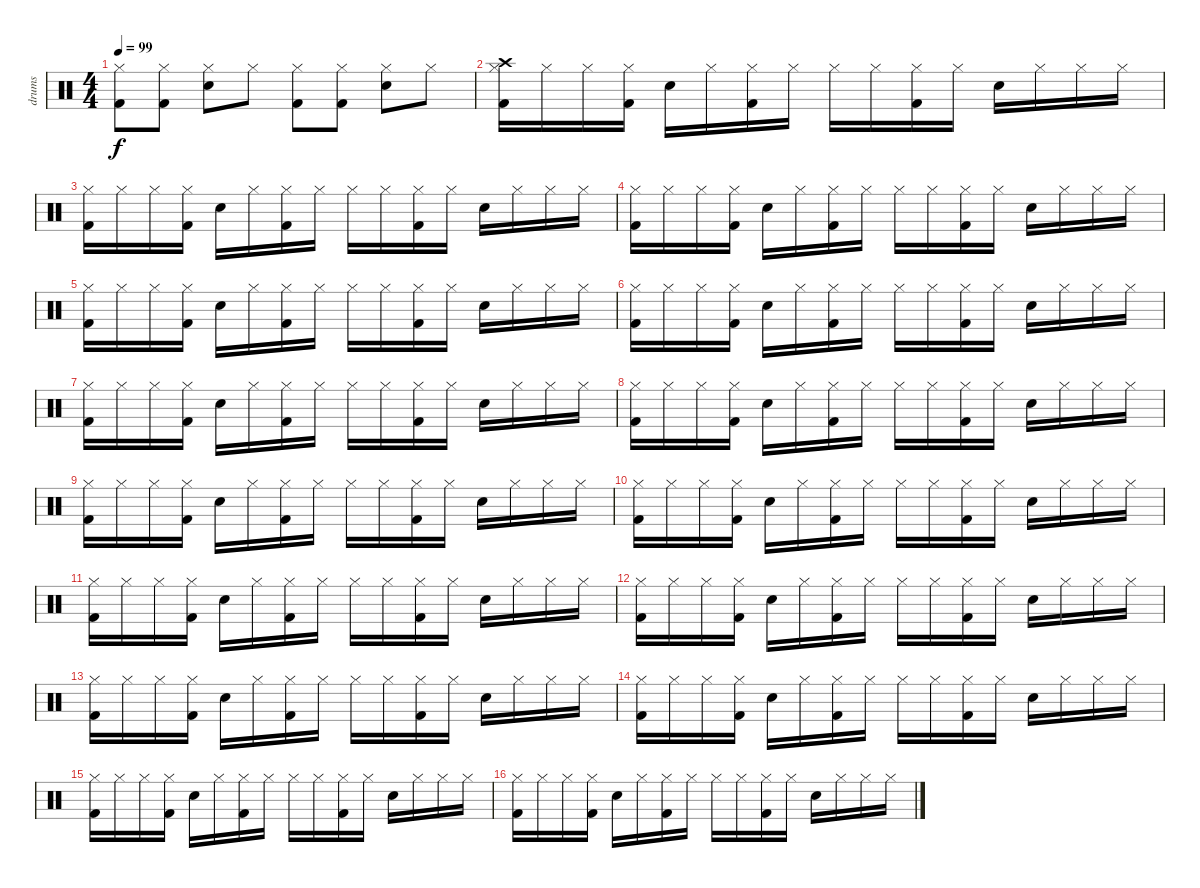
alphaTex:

\track ("drums" "drums") {instrument percussion}
\staff {score}
\articulation defaults
\ts (4 4)
\tempo 99
\clef neutral
\ks c
("Hi-Hat (closed)" "Kick (hit) 2").8{dy f} ("Hi-Hat (closed)" "Kick (hit) 2").8 ("Hi-Hat (closed)" "Snare (hit) 2").8 "Hi-Hat (closed)".8 ("Hi-Hat (closed)" "Kick (hit) 2").8 ("Hi-Hat (closed)" "Kick (hit) 2").8 ("Hi-Hat (closed)" "Snare (hit) 2").8 "Hi-Hat (closed)".8 |
("Crash high (hit)" "Hi-Hat (closed)" "Kick (hit) 2").16 "Hi-Hat (closed)".16 "Hi-Hat (closed)".16 ("Hi-Hat (closed)" "Kick (hit) 2").16 "Snare (hit) 2".16 "Hi-Hat (closed)".16 ("Hi-Hat (closed)" "Kick (hit) 2").16 "Hi-Hat (closed)".16 "Hi-Hat (closed)"{nh}.16 "Hi-Hat (closed)".16 ("Hi-Hat (closed)" "Kick (hit) 2").16 "Hi-Hat (closed)".16 "Snare (hit) 2".16 "Hi-Hat (closed)".16 "Hi-Hat (closed)".16 "Hi-Hat (closed)".16 |
("Hi-Hat (closed)" "Kick (hit) 2").16 "Hi-Hat (closed)".16 "Hi-Hat (closed)".16 ("Hi-Hat (closed)" "Kick (hit) 2").16 "Snare (hit) 2".16 "Hi-Hat (closed)".16 ("Hi-Hat (closed)" "Kick (hit) 2").16 "Hi-Hat (closed)".16 "Hi-Hat (closed)"{nh}.16 "Hi-Hat (closed)".16 ("Hi-Hat (closed)" "Kick (hit) 2").16 "Hi-Hat (closed)".16 "Snare (hit) 2".16 "Hi-Hat (closed)".16 "Hi-Hat (closed)".16 "Hi-Hat (closed)".16 |
("Hi-Hat (closed)" "Kick (hit) 2").16 "Hi-Hat (closed)".16 "Hi-Hat (closed)".16 ("Hi-Hat (closed)" "Kick (hit) 2").16 "Snare (hit) 2".16 "Hi-Hat (closed)".16 ("Hi-Hat (closed)" "Kick (hit) 2").16 "Hi-Hat (closed)".16 "Hi-Hat (closed)"{nh}.16 "Hi-Hat (closed)".16 ("Hi-Hat (closed)" "Kick (hit) 2").16 "Hi-Hat (closed)".16 "Snare (hit) 2".16 "Hi-Hat (closed)".16 "Hi-Hat (closed)".16 "Hi-Hat (closed)".16 |
("Hi-Hat (closed)" "Kick (hit) 2").16 "Hi-Hat (closed)".16 "Hi-Hat (closed)".16 ("Hi-Hat (closed)" "Kick (hit) 2").16 "Snare (hit) 2".16 "Hi-Hat (closed)".16 ("Hi-Hat (closed)" "Kick (hit) 2").16 "Hi-Hat (closed)".16 "Hi-Hat (closed)"{nh}.16 "Hi-Hat (closed)".16 ("Hi-Hat (closed)" "Kick (hit) 2").16 "Hi-Hat (closed)".16 "Snare (hit) 2".16 "Hi-Hat (closed)".16 "Hi-Hat (closed)".16 "Hi-Hat (closed)".16 |
("Hi-Hat (closed)" "Kick (hit) 2").16 "Hi-Hat (closed)".16 "Hi-Hat (closed)".16 ("Hi-Hat (closed)" "Kick (hit) 2").16 "Snare (hit) 2".16 "Hi-Hat (closed)".16 ("Hi-Hat (closed)" "Kick (hit) 2").16 "Hi-Hat (closed)".16 "Hi-Hat (closed)"{nh}.16 "Hi-Hat (closed)".16 ("Hi-Hat (closed)" "Kick (hit) 2").16 "Hi-Hat (closed)".16 "Snare (hit) 2".16 "Hi-Hat (closed)".16 "Hi-Hat (closed)".16 "Hi-Hat (closed)".16 |
("Hi-Hat (closed)" "Kick (hit) 2").16 "Hi-Hat (closed)".16 "Hi-Hat (closed)".16 ("Hi-Hat (closed)" "Kick (hit) 2").16 "Snare (hit) 2".16 "Hi-Hat (closed)".16 ("Hi-Hat (closed)" "Kick (hit) 2").16 "Hi-Hat (closed)".16 "Hi-Hat (closed)"{nh}.16 "Hi-Hat (closed)".16 ("Hi-Hat (closed)" "Kick (hit) 2").16 "Hi-Hat (closed)".16 "Snare (hit) 2".16 "Hi-Hat (closed)".16 "Hi-Hat (closed)".16 "Hi-Hat (closed)".16 |
("Hi-Hat (closed)" "Kick (hit) 2").16 "Hi-Hat (closed)".16 "Hi-Hat (closed)".16 ("Hi-Hat (closed)" "Kick (hit) 2").16 "Snare (hit) 2".16 "Hi-Hat (closed)".16 ("Hi-Hat (closed)" "Kick (hit) 2").16 "Hi-Hat (closed)".16 "Hi-Hat (closed)"{nh}.16 "Hi-Hat (closed)".16 ("Hi-Hat (closed)" "Kick (hit) 2").16 "Hi-Hat (closed)".16 "Snare (hit) 2".16 "Hi-Hat (closed)".16 "Hi-Hat (closed)".16 "Hi-Hat (closed)".16 |
("Hi-Hat (closed)" "Kick (hit) 2").16 "Hi-Hat (closed)".16 "Hi-Hat (closed)".16 ("Hi-Hat (closed)" "Kick (hit) 2").16 "Snare (hit) 2".16 "Hi-Hat (closed)".16 ("Hi-Hat (closed)" "Kick (hit) 2").16 "Hi-Hat (closed)".16 "Hi-Hat (closed)"{nh}.16 "Hi-Hat (closed)".16 ("Hi-Hat (closed)" "Kick (hit) 2").16 "Hi-Hat (closed)".16 "Snare (hit) 2".16 "Hi-Hat (closed)".16 "Hi-Hat (closed)".16 "Hi-Hat (closed)".16 |
("Hi-Hat (closed)" "Kick (hit) 2").16 "Hi-Hat (closed)".16 "Hi-Hat (closed)".16 ("Hi-Hat (closed)" "Kick (hit) 2").16 "Snare (hit) 2".16 "Hi-Hat (closed)".16 ("Hi-Hat (closed)" "Kick (hit) 2").16 "Hi-Hat (closed)".16 "Hi-Hat (closed)"{nh}.16 "Hi-Hat (closed)".16 ("Hi-Hat (closed)" "Kick (hit) 2").16 "Hi-Hat (closed)".16 "Snare (hit) 2".16 "Hi-Hat (closed)".16 "Hi-Hat (closed)".16 "Hi-Hat (closed)".16 |
("Hi-Hat (closed)" "Kick (hit) 2").16 "Hi-Hat (closed)".16 "Hi-Hat (closed)".16 ("Hi-Hat (closed)" "Kick (hit) 2").16 "Snare (hit) 2".16 "Hi-Hat (closed)".16 ("Hi-Hat (closed)" "Kick (hit) 2").16 "Hi-Hat (closed)".16 "Hi-Hat (closed)"{nh}.16 "Hi-Hat (closed)".16 ("Hi-Hat (closed)" "Kick (hit) 2").16 "Hi-Hat (closed)".16 "Snare (hit) 2".16 "Hi-Hat (closed)".16 "Hi-Hat (closed)".16 "Hi-Hat (closed)".16 |
("Hi-Hat (closed)" "Kick (hit) 2").16 "Hi-Hat (closed)".16 "Hi-Hat (closed)".16 ("Hi-Hat (closed)" "Kick (hit) 2").16 "Snare (hit) 2".16 "Hi-Hat (closed)".16 ("Hi-Hat (closed)" "Kick (hit) 2").16 "Hi-Hat (closed)".16 "Hi-Hat (closed)"{nh}.16 "Hi-Hat (closed)".16 ("Hi-Hat (closed)" "Kick (hit) 2").16 "Hi-Hat (closed)".16 "Snare (hit) 2".16 "Hi-Hat (closed)".16 "Hi-Hat (closed)".16 "Hi-Hat (closed)".16 |
("Hi-Hat (closed)" "Kick (hit) 2").16 "Hi-Hat (closed)".16 "Hi-Hat (closed)".16 ("Hi-Hat (closed)" "Kick (hit) 2").16 "Snare (hit) 2".16 "Hi-Hat (closed)".16 ("Hi-Hat (closed)" "Kick (hit) 2").16 "Hi-Hat (closed)".16 "Hi-Hat (closed)"{nh}.16 "Hi-Hat (closed)".16 ("Hi-Hat (closed)" "Kick (hit) 2").16 "Hi-Hat (closed)".16 "Snare (hit) 2".16 "Hi-Hat (closed)".16 "Hi-Hat (closed)".16 "Hi-Hat (closed)".16 |
("Hi-Hat (closed)" "Kick (hit) 2").16 "Hi-Hat (closed)".16 "Hi-Hat (closed)".16 ("Hi-Hat (closed)" "Kick (hit) 2").16 "Snare (hit) 2".16 "Hi-Hat (closed)".16 ("Hi-Hat (closed)" "Kick (hit) 2").16 "Hi-Hat (closed)".16 "Hi-Hat (closed)"{nh}.16 "Hi-Hat (closed)".16 ("Hi-Hat (closed)" "Kick (hit) 2").16 "Hi-Hat (closed)".16 "Snare (hit) 2".16 "Hi-Hat (closed)".16 "Hi-Hat (closed)".16 "Hi-Hat (closed)".16 |
("Hi-Hat (closed)" "Kick (hit) 2").16 "Hi-Hat (closed)".16 "Hi-Hat (closed)".16 ("Hi-Hat (closed)" "Kick (hit) 2").16 "Snare (hit) 2".16 "Hi-Hat (closed)".16 ("Hi-Hat (closed)" "Kick (hit) 2").16 "Hi-Hat (closed)".16 "Hi-Hat (closed)"{nh}.16 "Hi-Hat (closed)".16 ("Hi-Hat (closed)" "Kick (hit) 2").16 "Hi-Hat (closed)".16 "Snare (hit) 2".16 "Hi-Hat (closed)".16 "Hi-Hat (closed)".16 "Hi-Hat (closed)".16 |
("Hi-Hat (closed)" "Kick (hit) 2").16 "Hi-Hat (closed)".16 "Hi-Hat (closed)".16 ("Hi-Hat (closed)" "Kick (hit) 2").16 "Snare (hit) 2".16 "Hi-Hat (closed)".16 ("Hi-Hat (closed)" "Kick (hit) 2").16 "Hi-Hat (closed)".16 "Hi-Hat (closed)"{nh}.16 "Hi-Hat (closed)".16 ("Hi-Hat (closed)" "Kick (hit) 2").16 "Hi-Hat (closed)".16 "Snare (hit) 2".16 "Hi-Hat (closed)".16 "Hi-Hat (closed)".16 "Hi-Hat (closed)".16
